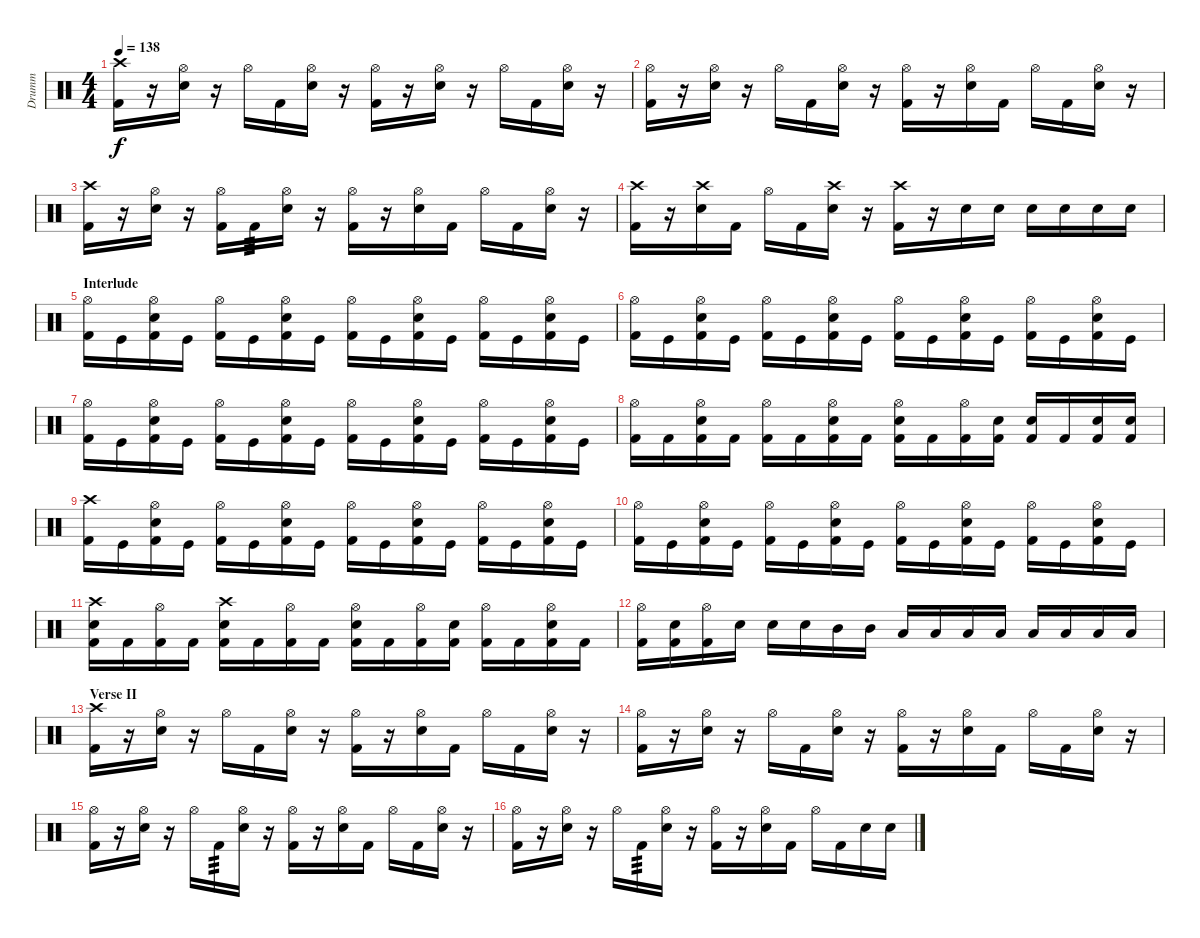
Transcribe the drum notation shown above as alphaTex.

\track ("Drumm" "Drumm") {instrument percussion}
\staff {score}
\articulation defaults
\ts (4 4)
\tempo 138
\clef neutral
\ks c
("Crash high (hit)" "Kick (hit) 2").16{dy f} r.16 ("Hi-Hat (open)" "Snare (hit) 2").16 r.16 "Hi-Hat (open)".16 "Kick (hit) 2".16 ("Hi-Hat (open)" "Snare (hit) 2").16 r.16 ("Hi-Hat (open)" "Kick (hit) 2").16 r.16 ("Hi-Hat (open)" "Snare (hit) 2").16 r.16 "Hi-Hat (open)".16 "Kick (hit) 2".16 ("Hi-Hat (open)" "Snare (hit) 2").16 r.16 |
("Hi-Hat (open)" "Kick (hit) 2").16 r.16 ("Hi-Hat (open)" "Snare (hit) 2").16 r.16 "Hi-Hat (open)".16 "Kick (hit) 2".16 ("Hi-Hat (open)" "Snare (hit) 2").16 r.16 ("Hi-Hat (open)" "Kick (hit) 2").16 r.16 ("Hi-Hat (open)" "Snare (hit) 2").16 "Kick (hit) 2".16 "Hi-Hat (open)".16 "Kick (hit) 2".16 ("Hi-Hat (open)" "Snare (hit) 2").16 r.16 |
("Crash high (hit)" "Kick (hit) 2").16 r.16 ("Hi-Hat (open)" "Snare (hit) 2").16 r.16 ("Hi-Hat (open)" "Kick (hit) 2").16 "Kick (hit) 2".16{tp 3} ("Hi-Hat (open)" "Snare (hit) 2").16 r.16 ("Hi-Hat (open)" "Kick (hit) 2").16 r.16 ("Hi-Hat (open)" "Snare (hit) 2").16 "Kick (hit) 2".16 "Hi-Hat (open)".16 "Kick (hit) 2".16 ("Hi-Hat (open)" "Snare (hit) 2").16 r.16 |
("Crash high (hit)" "Kick (hit) 2").16 r.16 ("Crash high (hit)" "Snare (hit) 2").16 "Kick (hit) 2".16 "Hi-Hat (open)".16 "Kick (hit) 2".16 ("Crash high (hit)" "Snare (hit) 2").16 r.16 ("Crash high (hit)" "Kick (hit) 2").16 r.16 "Snare (hit) 2".16 "Snare (hit) 2".16 "Snare (hit) 2".16 "Snare (hit) 2".16 "Snare (hit) 2".16 "Snare (hit) 2".16 |
\section ("" "Interlude")
("Hi-Hat (open)" "Kick (hit) 2").16 "Kick (hit)".16 ("Hi-Hat (open)" "Snare (hit) 2" "Kick (hit) 2").16 "Kick (hit)".16 ("Hi-Hat (open)" "Kick (hit) 2").16 "Kick (hit)".16 ("Hi-Hat (open)" "Snare (hit) 2" "Kick (hit) 2").16 "Kick (hit)".16 ("Hi-Hat (open)" "Kick (hit) 2").16 "Kick (hit)".16 ("Hi-Hat (open)" "Snare (hit) 2" "Kick (hit) 2").16 "Kick (hit)".16 ("Hi-Hat (open)" "Kick (hit) 2").16 "Kick (hit)".16 ("Hi-Hat (open)" "Snare (hit) 2" "Kick (hit) 2").16 "Kick (hit)".16 |
("Hi-Hat (open)" "Kick (hit) 2").16 "Kick (hit)".16 ("Hi-Hat (open)" "Snare (hit) 2" "Kick (hit) 2").16 "Kick (hit)".16 ("Hi-Hat (open)" "Kick (hit) 2").16 "Kick (hit)".16 ("Hi-Hat (open)" "Snare (hit) 2" "Kick (hit) 2").16 "Kick (hit)".16 ("Hi-Hat (open)" "Kick (hit) 2").16 "Kick (hit)".16 ("Hi-Hat (open)" "Snare (hit) 2" "Kick (hit) 2").16 "Kick (hit)".16 ("Hi-Hat (open)" "Kick (hit) 2").16 "Kick (hit)".16 ("Hi-Hat (open)" "Snare (hit) 2" "Kick (hit) 2").16 "Kick (hit)".16 |
("Hi-Hat (open)" "Kick (hit) 2").16 "Kick (hit)".16 ("Hi-Hat (open)" "Snare (hit) 2" "Kick (hit) 2").16 "Kick (hit)".16 ("Hi-Hat (open)" "Kick (hit) 2").16 "Kick (hit)".16 ("Hi-Hat (open)" "Snare (hit) 2" "Kick (hit) 2").16 "Kick (hit)".16 ("Hi-Hat (open)" "Kick (hit) 2").16 "Kick (hit)".16 ("Hi-Hat (open)" "Snare (hit) 2" "Kick (hit) 2").16 "Kick (hit)".16 ("Hi-Hat (open)" "Kick (hit) 2").16 "Kick (hit)".16 ("Hi-Hat (open)" "Snare (hit) 2" "Kick (hit) 2").16 "Kick (hit)".16 |
("Hi-Hat (open)" "Kick (hit) 2").16 "Kick (hit) 2".16 ("Hi-Hat (open)" "Snare (hit) 2" "Kick (hit) 2").16 "Kick (hit) 2".16 ("Hi-Hat (open)" "Kick (hit) 2").16 "Kick (hit) 2".16 ("Hi-Hat (open)" "Snare (hit) 2" "Kick (hit) 2").16 "Kick (hit) 2".16 ("Hi-Hat (open)" "Snare (hit) 2" "Kick (hit) 2").16 "Kick (hit) 2".16 ("Hi-Hat (open)" "Kick (hit) 2").16 ("Snare (hit) 2" "Kick (hit) 2").16 ("Snare (hit) 2" "Kick (hit) 2").16 "Kick (hit) 2".16 ("Snare (hit) 2" "Kick (hit) 2").16 ("Snare (hit) 2" "Kick (hit) 2").16 |
("Crash high (hit)" "Kick (hit) 2").16 "Kick (hit)".16 ("Hi-Hat (open)" "Snare (hit) 2" "Kick (hit) 2").16 "Kick (hit)".16 ("Hi-Hat (open)" "Kick (hit) 2").16 "Kick (hit)".16 ("Hi-Hat (open)" "Snare (hit) 2" "Kick (hit) 2").16 "Kick (hit)".16 ("Hi-Hat (open)" "Kick (hit) 2").16 "Kick (hit)".16 ("Hi-Hat (open)" "Snare (hit) 2" "Kick (hit) 2").16 "Kick (hit)".16 ("Hi-Hat (open)" "Kick (hit) 2").16 "Kick (hit)".16 ("Hi-Hat (open)" "Snare (hit) 2" "Kick (hit) 2").16 "Kick (hit)".16 |
("Hi-Hat (open)" "Kick (hit) 2").16 "Kick (hit)".16 ("Hi-Hat (open)" "Snare (hit) 2" "Kick (hit) 2").16 "Kick (hit)".16 ("Hi-Hat (open)" "Kick (hit) 2").16 "Kick (hit)".16 ("Hi-Hat (open)" "Snare (hit) 2" "Kick (hit) 2").16 "Kick (hit)".16 ("Hi-Hat (open)" "Kick (hit) 2").16 "Kick (hit)".16 ("Hi-Hat (open)" "Snare (hit) 2" "Kick (hit) 2").16 "Kick (hit)".16 ("Hi-Hat (open)" "Kick (hit) 2").16 "Kick (hit)".16 ("Hi-Hat (open)" "Snare (hit) 2" "Kick (hit) 2").16 "Kick (hit)".16 |
("Crash high (hit)" "Snare (hit) 2" "Kick (hit) 2").16 "Kick (hit) 2".16 ("Hi-Hat (open)" "Kick (hit) 2").16 "Kick (hit) 2".16 ("Crash high (hit)" "Snare (hit) 2" "Kick (hit) 2").16 "Kick (hit) 2".16 ("Hi-Hat (open)" "Kick (hit) 2").16 "Kick (hit) 2".16 ("Hi-Hat (open)" "Snare (hit) 2" "Kick (hit) 2").16 "Kick (hit) 2".16 ("Hi-Hat (open)" "Kick (hit) 2").16 ("Snare (hit) 2" "Kick (hit) 2").16 ("Hi-Hat (open)" "Kick (hit) 2").16 "Kick (hit) 2".16 ("Hi-Hat (open)" "Snare (hit) 2" "Kick (hit) 2").16 "Kick (hit) 2".16 |
("Hi-Hat (open)" "Kick (hit) 2").16 ("Snare (hit) 2" "Kick (hit) 2").16 ("Hi-Hat (open)" "Kick (hit) 2").16 "Snare (hit) 2".16 "Snare (hit) 2".16 "Snare (hit) 2".16 "Mid Tom (hit)".16 "Mid Tom (hit)".16 "Low Tom (hit)".16 "Low Tom (hit)".16 "Low Floor Tom (hit)".16 "Low Floor Tom (hit)".16 "Low Floor Tom (hit)".16 "Low Floor Tom (hit)".16 "Low Floor Tom (hit)".16 "Low Floor Tom (hit)".16 |
\section ("" "Verse II")
("Crash high (hit)" "Kick (hit) 2").16 r.16 ("Hi-Hat (open)" "Snare (hit) 2").16 r.16 "Hi-Hat (open)".16 "Kick (hit) 2".16 ("Hi-Hat (open)" "Snare (hit) 2").16 r.16 ("Hi-Hat (open)" "Kick (hit) 2").16 r.16 ("Hi-Hat (open)" "Snare (hit) 2").16 "Kick (hit) 2".16 "Hi-Hat (open)".16 "Kick (hit) 2".16 ("Hi-Hat (open)" "Snare (hit) 2").16 r.16 |
("Hi-Hat (open)" "Kick (hit) 2").16 r.16 ("Hi-Hat (open)" "Snare (hit) 2").16 r.16 "Hi-Hat (open)".16 "Kick (hit) 2".16 ("Hi-Hat (open)" "Snare (hit) 2").16 r.16 ("Hi-Hat (open)" "Kick (hit) 2").16 r.16 ("Hi-Hat (open)" "Snare (hit) 2").16 "Kick (hit) 2".16 "Hi-Hat (open)".16 "Kick (hit) 2".16 ("Hi-Hat (open)" "Snare (hit) 2").16 r.16 |
("Hi-Hat (open)" "Kick (hit) 2").16 r.16 ("Hi-Hat (open)" "Snare (hit) 2").16 r.16 "Hi-Hat (open)".16 "Kick (hit) 2".16{tp 3} ("Hi-Hat (open)" "Snare (hit) 2").16 r.16 ("Hi-Hat (open)" "Kick (hit) 2").16 r.16 ("Hi-Hat (open)" "Snare (hit) 2").16 "Kick (hit) 2".16 "Hi-Hat (open)".16 "Kick (hit) 2".16 ("Hi-Hat (open)" "Snare (hit) 2").16 r.16 |
("Hi-Hat (open)" "Kick (hit) 2").16 r.16 ("Hi-Hat (open)" "Snare (hit) 2").16 r.16 "Hi-Hat (open)".16 "Kick (hit) 2".16{tp 3} ("Hi-Hat (open)" "Snare (hit) 2").16 r.16 ("Hi-Hat (open)" "Kick (hit) 2").16 r.16 ("Hi-Hat (open)" "Snare (hit) 2").16 "Kick (hit) 2".16 "Hi-Hat (open)".16 "Kick (hit) 2".16 "Snare (hit) 2".16 "Snare (hit) 2".16
